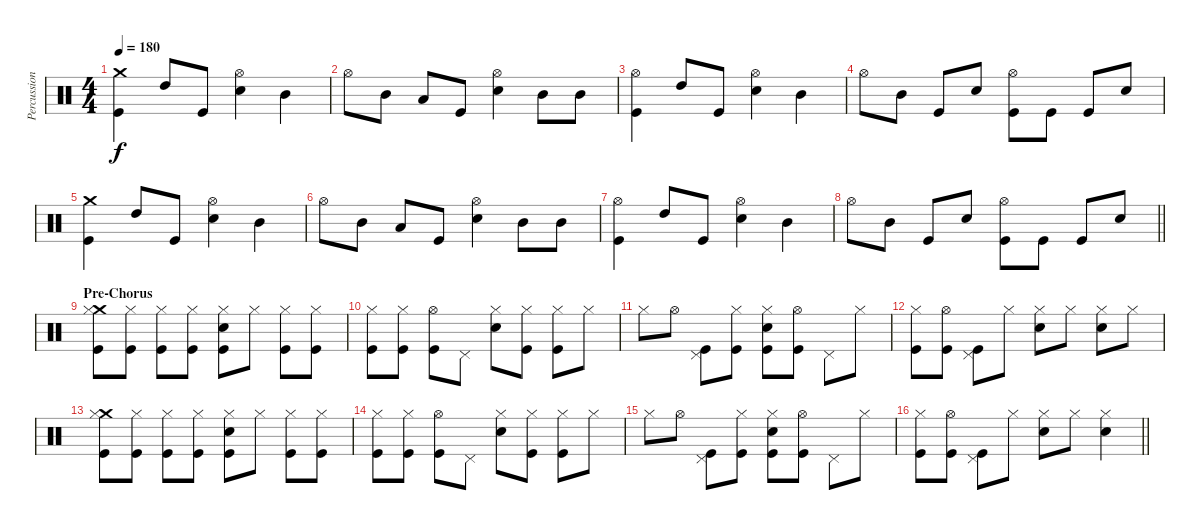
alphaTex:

\track ("Percussion" "Percussion") {instrument percussion}
\staff {score}
\articulation defaults
\ts (4 4)
\tempo 180
\clef neutral
\ks c
("Crash medium (hit)" "Kick (hit)").4{dy f} "High Tom (hit)".8 "Kick (hit)".8 ("Hi-Hat (open)" "Electric Snare (hit)").4 "Mid Tom (hit)".4 |
"Hi-Hat (open)".8 "Mid Tom (hit)".8 "Low Tom (hit)".8 "Kick (hit)".8 ("Hi-Hat (open)" "Electric Snare (hit)").4 "Mid Tom (hit)".8 "Mid Tom (hit)".8 |
("Hi-Hat (open)" "Kick (hit)").4 "High Tom (hit)".8 "Kick (hit)".8 ("Hi-Hat (open)" "Electric Snare (hit)").4 "Mid Tom (hit)".4 |
"Hi-Hat (open)".8 "Mid Tom (hit)".8 "Kick (hit)".8 "Electric Snare (hit)".8 ("Hi-Hat (open)" "Kick (hit)").8 "Kick (hit)".8 "Kick (hit)".8 "Electric Snare (hit)".8 |
("Crash medium (hit)" "Kick (hit)").4 "High Tom (hit)".8 "Kick (hit)".8 ("Hi-Hat (open)" "Electric Snare (hit)").4 "Mid Tom (hit)".4 |
"Hi-Hat (open)".8 "Mid Tom (hit)".8 "Low Tom (hit)".8 "Kick (hit)".8 ("Hi-Hat (open)" "Electric Snare (hit)").4 "Mid Tom (hit)".8 "Mid Tom (hit)".8 |
("Hi-Hat (open)" "Kick (hit)").4 "High Tom (hit)".8 "Kick (hit)".8 ("Hi-Hat (open)" "Electric Snare (hit)").4 "Mid Tom (hit)".4 |
\barLineRight lightlight "Hi-Hat (open)".8 "Mid Tom (hit)".8 "Kick (hit)".8 "Electric Snare (hit)".8
("Hi-Hat (open)" "Kick (hit)").8 "Kick (hit)".8 "Kick (hit)".8 "Electric Snare (hit)".8 |
\section ("" "Pre-Chorus")
("Crash medium (hit)" "Hi-Hat (closed)" "Kick (hit)").8 ("Hi-Hat (closed)" "Kick (hit)").8 ("Hi-Hat (closed)" "Kick (hit)").8 ("Hi-Hat (closed)" "Kick (hit)").8 ("Hi-Hat (closed)" "Electric Snare (hit)" "Kick (hit)").8 "Hi-Hat (closed)".8 ("Hi-Hat (closed)" "Kick (hit)").8 ("Hi-Hat (closed)" "Kick (hit)").8 |
("Hi-Hat (closed)" "Kick (hit)").8 ("Hi-Hat (closed)" "Kick (hit)").8 ("Hi-Hat (open)" "Kick (hit)").8 "Pedal Hi-Hat (hit)".8 ("Hi-Hat (closed)" "Electric Snare (hit)").8 ("Hi-Hat (closed)" "Kick (hit)").8 ("Hi-Hat (closed)" "Kick (hit)").8 "Hi-Hat (closed)".8 |
"Hi-Hat (closed)".8 "Hi-Hat (open)".8 ("Pedal Hi-Hat (hit)" "Kick (hit)").8 ("Hi-Hat (closed)" "Kick (hit)").8 ("Hi-Hat (closed)" "Electric Snare (hit)" "Kick (hit)").8 ("Hi-Hat (open)" "Kick (hit)").8 "Pedal Hi-Hat (hit)".8 "Hi-Hat (closed)".8 |
("Hi-Hat (closed)" "Kick (hit)").8 ("Hi-Hat (open)" "Kick (hit)").8 ("Pedal Hi-Hat (hit)" "Kick (hit)").8 "Hi-Hat (closed)".8 ("Hi-Hat (closed)" "Electric Snare (hit)").8 "Hi-Hat (closed)".8 ("Hi-Hat (closed)" "Electric Snare (hit)").8 "Hi-Hat (closed)".8 |
("Crash medium (hit)" "Hi-Hat (closed)" "Kick (hit)").8 ("Hi-Hat (closed)" "Kick (hit)").8 ("Hi-Hat (closed)" "Kick (hit)").8 ("Hi-Hat (closed)" "Kick (hit)").8 ("Hi-Hat (closed)" "Electric Snare (hit)" "Kick (hit)").8 "Hi-Hat (closed)".8 ("Hi-Hat (closed)" "Kick (hit)").8 ("Hi-Hat (closed)" "Kick (hit)").8 |
("Hi-Hat (closed)" "Kick (hit)").8 ("Hi-Hat (closed)" "Kick (hit)").8 ("Hi-Hat (open)" "Kick (hit)").8 "Pedal Hi-Hat (hit)".8 ("Hi-Hat (closed)" "Electric Snare (hit)").8 ("Hi-Hat (closed)" "Kick (hit)").8 ("Hi-Hat (closed)" "Kick (hit)").8 "Hi-Hat (closed)".8 |
"Hi-Hat (closed)".8 "Hi-Hat (open)".8 ("Pedal Hi-Hat (hit)" "Kick (hit)").8 ("Hi-Hat (closed)" "Kick (hit)").8 ("Hi-Hat (closed)" "Electric Snare (hit)" "Kick (hit)").8 ("Hi-Hat (open)" "Kick (hit)").8 "Pedal Hi-Hat (hit)".8 "Hi-Hat (closed)".8 |
\barLineRight lightlight
("Hi-Hat (closed)" "Kick (hit)").8 ("Hi-Hat (open)" "Kick (hit)").8 ("Pedal Hi-Hat (hit)" "Kick (hit)").8 "Hi-Hat (closed)".8 ("Hi-Hat (closed)" "Electric Snare (hit)").8 "Hi-Hat (closed)".8 ("Hi-Hat (closed)" "Electric Snare (hit)").4
